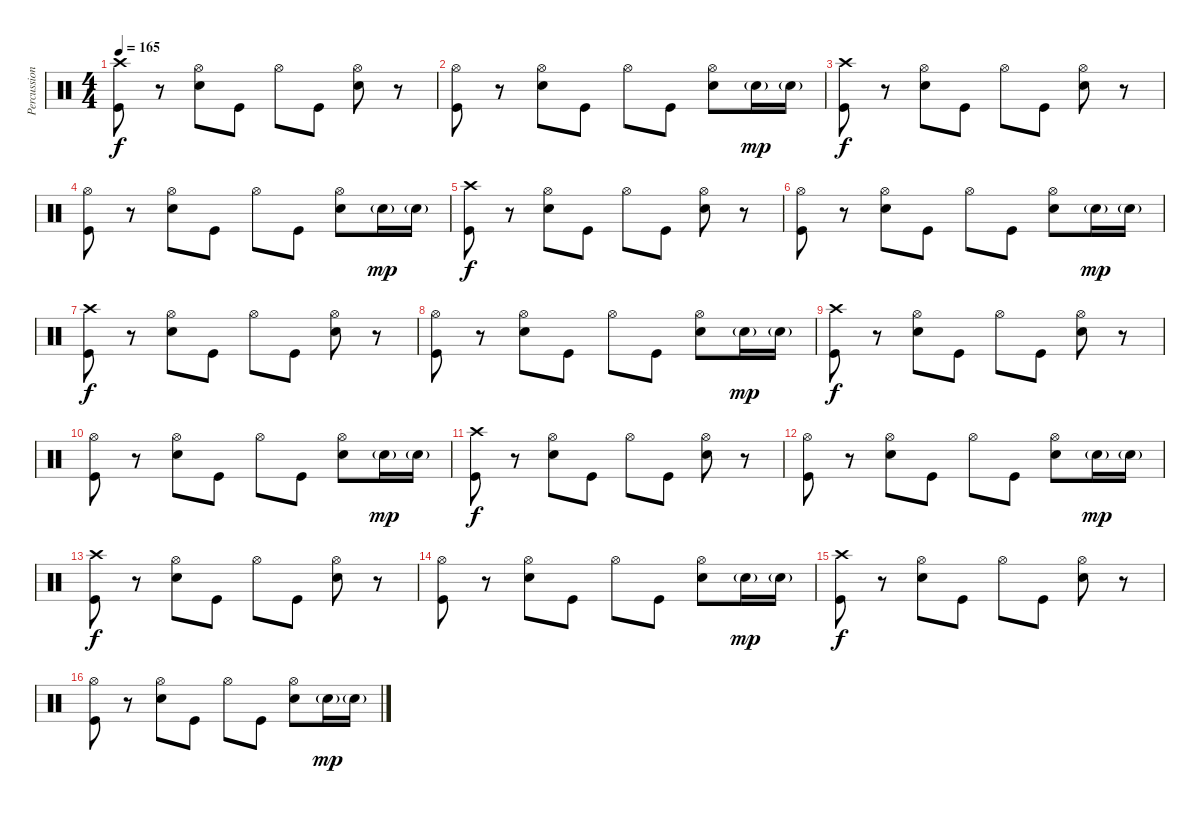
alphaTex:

\track ("Percussion" "Percussion") {instrument percussion}
\staff {score}
\articulation defaults
\ts (4 4)
\tempo 165
\clef neutral
\ks c
("Crash high (hit)" "Kick (hit)").8{dy f} r.8 ("Hi-Hat (open)" "Snare (hit) 2").8 "Kick (hit)".8 "Hi-Hat (open)".8 "Kick (hit)".8 ("Hi-Hat (open)" "Snare (hit) 2").8 r.8 |
("Hi-Hat (open)" "Kick (hit)").8 r.8 ("Hi-Hat (open)" "Snare (hit) 2").8 "Kick (hit)".8 "Hi-Hat (open)".8 "Kick (hit)".8 ("Hi-Hat (open)" "Snare (hit) 2").8 "Snare (hit) 2"{g}.16{dy mp} "Snare (hit) 2"{g}.16 |
("Crash high (hit)" "Kick (hit)").8{dy f} r.8 ("Hi-Hat (open)" "Snare (hit) 2").8 "Kick (hit)".8 "Hi-Hat (open)".8 "Kick (hit)".8 ("Hi-Hat (open)" "Snare (hit) 2").8 r.8 |
("Hi-Hat (open)" "Kick (hit)").8 r.8 ("Hi-Hat (open)" "Snare (hit) 2").8 "Kick (hit)".8 "Hi-Hat (open)".8 "Kick (hit)".8 ("Hi-Hat (open)" "Snare (hit) 2").8 "Snare (hit) 2"{g}.16{dy mp} "Snare (hit) 2"{g}.16 |
("Crash high (hit)" "Kick (hit)").8{dy f} r.8 ("Hi-Hat (open)" "Snare (hit) 2").8 "Kick (hit)".8 "Hi-Hat (open)".8 "Kick (hit)".8 ("Hi-Hat (open)" "Snare (hit) 2").8 r.8 |
("Hi-Hat (open)" "Kick (hit)").8 r.8 ("Hi-Hat (open)" "Snare (hit) 2").8 "Kick (hit)".8 "Hi-Hat (open)".8 "Kick (hit)".8 ("Hi-Hat (open)" "Snare (hit) 2").8 "Snare (hit) 2"{g}.16{dy mp} "Snare (hit) 2"{g}.16 |
("Crash high (hit)" "Kick (hit)").8{dy f} r.8 ("Hi-Hat (open)" "Snare (hit) 2").8 "Kick (hit)".8 "Hi-Hat (open)".8 "Kick (hit)".8 ("Hi-Hat (open)" "Snare (hit) 2").8 r.8 |
("Hi-Hat (open)" "Kick (hit)").8 r.8 ("Hi-Hat (open)" "Snare (hit) 2").8 "Kick (hit)".8 "Hi-Hat (open)".8 "Kick (hit)".8 ("Hi-Hat (open)" "Snare (hit) 2").8 "Snare (hit) 2"{g}.16{dy mp} "Snare (hit) 2"{g}.16 |
("Crash high (hit)" "Kick (hit)").8{dy f} r.8 ("Hi-Hat (open)" "Snare (hit) 2").8 "Kick (hit)".8 "Hi-Hat (open)".8 "Kick (hit)".8 ("Hi-Hat (open)" "Snare (hit) 2").8 r.8 |
("Hi-Hat (open)" "Kick (hit)").8 r.8 ("Hi-Hat (open)" "Snare (hit) 2").8 "Kick (hit)".8 "Hi-Hat (open)".8 "Kick (hit)".8 ("Hi-Hat (open)" "Snare (hit) 2").8 "Snare (hit) 2"{g}.16{dy mp} "Snare (hit) 2"{g}.16 |
("Crash high (hit)" "Kick (hit)").8{dy f} r.8 ("Hi-Hat (open)" "Snare (hit) 2").8 "Kick (hit)".8 "Hi-Hat (open)".8 "Kick (hit)".8 ("Hi-Hat (open)" "Snare (hit) 2").8 r.8 |
("Hi-Hat (open)" "Kick (hit)").8 r.8 ("Hi-Hat (open)" "Snare (hit) 2").8 "Kick (hit)".8 "Hi-Hat (open)".8 "Kick (hit)".8 ("Hi-Hat (open)" "Snare (hit) 2").8 "Snare (hit) 2"{g}.16{dy mp} "Snare (hit) 2"{g}.16 |
("Crash high (hit)" "Kick (hit)").8{dy f} r.8 ("Hi-Hat (open)" "Snare (hit) 2").8 "Kick (hit)".8 "Hi-Hat (open)".8 "Kick (hit)".8 ("Hi-Hat (open)" "Snare (hit) 2").8 r.8 |
("Hi-Hat (open)" "Kick (hit)").8 r.8 ("Hi-Hat (open)" "Snare (hit) 2").8 "Kick (hit)".8 "Hi-Hat (open)".8 "Kick (hit)".8 ("Hi-Hat (open)" "Snare (hit) 2").8 "Snare (hit) 2"{g}.16{dy mp} "Snare (hit) 2"{g}.16 |
("Crash high (hit)" "Kick (hit)").8{dy f} r.8 ("Hi-Hat (open)" "Snare (hit) 2").8 "Kick (hit)".8 "Hi-Hat (open)".8 "Kick (hit)".8 ("Hi-Hat (open)" "Snare (hit) 2").8 r.8 |
("Hi-Hat (open)" "Kick (hit)").8 r.8 ("Hi-Hat (open)" "Snare (hit) 2").8 "Kick (hit)".8 "Hi-Hat (open)".8 "Kick (hit)".8 ("Hi-Hat (open)" "Snare (hit) 2").8 "Snare (hit) 2"{g}.16{dy mp} "Snare (hit) 2"{g}.16
